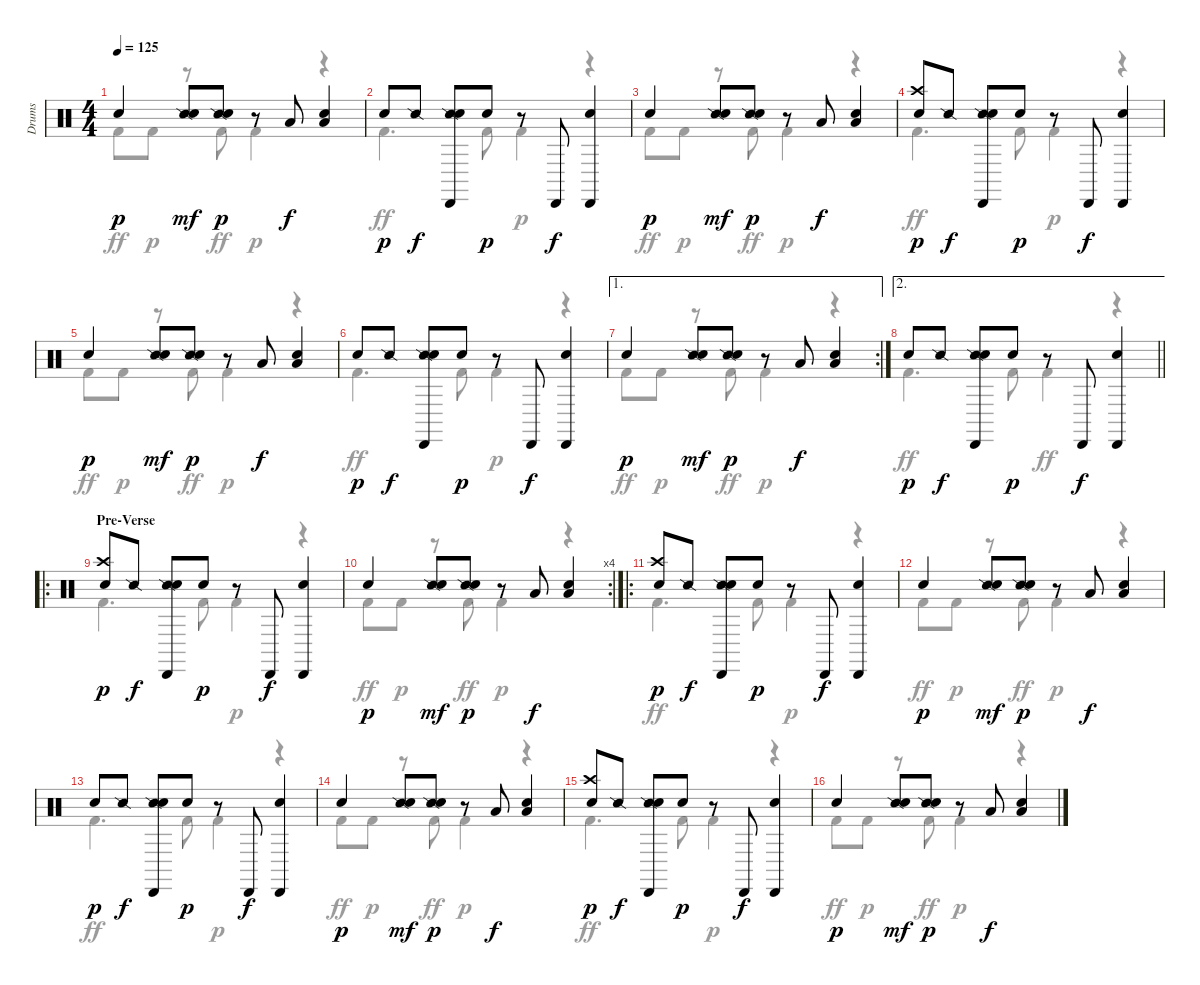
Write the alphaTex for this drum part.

\track ("Drums" "Drums") {instrument percussion}
\staff {score}
\articulation defaults
\voice
\ts (4 4)
\tempo 125
\clef neutral
\ks c "Hand Clap (hit)".4{dy p}
("Snare (side stick) 2" "Snare (hit) 2").8{dy mf} ("Snare (side stick) 2" "Hand Clap (hit)").8{dy p} r.8 "Low Tom (hit)".8{dy f} ("Low Tom (hit)" "Snare (hit) 2").4 |
"Hand Clap (hit)".8{dy p} "Snare (side stick) 2".8{dy f} ("Snare (side stick) 2" "Cabasa (hit)" "Snare (hit) 2").8 "Hand Clap (hit)".8{dy p} r.8 "Cabasa (hit)".8{dy f} ("Cabasa (hit)" "Snare (hit) 2").4 |
"Hand Clap (hit)".4{dy p} ("Snare (side stick) 2" "Snare (hit) 2").8{dy mf} ("Snare (side stick) 2" "Hand Clap (hit)").8{dy p} r.8 "Low Tom (hit)".8{dy f} ("Low Tom (hit)" "Snare (hit) 2").4 |
("Crash high (hit)" "Hand Clap (hit)").8{dy p} "Snare (side stick) 2".8{dy f} ("Snare (side stick) 2" "Cabasa (hit)" "Snare (hit) 2").8 "Hand Clap (hit)".8{dy p} r.8 "Cabasa (hit)".8{dy f} ("Cabasa (hit)" "Snare (hit) 2").4 |
"Hand Clap (hit)".4{dy p} ("Snare (side stick) 2" "Snare (hit) 2").8{dy mf} ("Snare (side stick) 2" "Hand Clap (hit)").8{dy p} r.8 "Low Tom (hit)".8{dy f} ("Low Tom (hit)" "Snare (hit) 2").4 |
"Hand Clap (hit)".8{dy p} "Snare (side stick) 2".8{dy f} ("Snare (side stick) 2" "Cabasa (hit)" "Snare (hit) 2").8 "Hand Clap (hit)".8{dy p} r.8 "Cabasa (hit)".8{dy f} ("Cabasa (hit)" "Snare (hit) 2").4 |
\ae 1
\rc 2 "Hand Clap (hit)".4{dy p}
("Snare (side stick) 2" "Snare (hit) 2").8{dy mf} ("Snare (side stick) 2" "Hand Clap (hit)").8{dy p} r.8 "Low Tom (hit)".8{dy f} ("Low Tom (hit)" "Snare (hit) 2").4 |
\ae 2
\barLineRight lightlight "Hand Clap (hit)".8{dy p} "Snare (side stick) 2".8{dy f}
("Snare (side stick) 2" "Cabasa (hit)" "Snare (hit) 2").8 "Hand Clap (hit)".8{dy p} r.8 "Cabasa (hit)".8{dy f} ("Cabasa (hit)" "Snare (hit) 2").4 |
\ro
\section ("" "Pre-Verse")
("Crash high (hit)" "Hand Clap (hit)").8{dy p} "Snare (side stick) 2".8{dy f} ("Snare (side stick) 2" "Cabasa (hit)" "Snare (hit) 2").8 "Hand Clap (hit)".8{dy p} r.8 "Cabasa (hit)".8{dy f} ("Cabasa (hit)" "Snare (hit) 2").4 |
\rc 4 "Hand Clap (hit)".4{dy p}
("Snare (side stick) 2" "Snare (hit) 2").8{dy mf} ("Snare (side stick) 2" "Hand Clap (hit)").8{dy p} r.8 "Low Tom (hit)".8{dy f} ("Low Tom (hit)" "Snare (hit) 2").4 |
\ro
("Crash high (hit)" "Hand Clap (hit)").8{dy p} "Snare (side stick) 2".8{dy f} ("Snare (side stick) 2" "Cabasa (hit)" "Snare (hit) 2").8 "Hand Clap (hit)".8{dy p} r.8 "Cabasa (hit)".8{dy f} ("Cabasa (hit)" "Snare (hit) 2").4 |
"Hand Clap (hit)".4{dy p} ("Snare (side stick) 2" "Snare (hit) 2").8{dy mf} ("Snare (side stick) 2" "Hand Clap (hit)").8{dy p} r.8 "Low Tom (hit)".8{dy f} ("Low Tom (hit)" "Snare (hit) 2").4 |
"Hand Clap (hit)".8{dy p} "Snare (side stick) 2".8{dy f} ("Snare (side stick) 2" "Cabasa (hit)" "Snare (hit) 2").8 "Hand Clap (hit)".8{dy p} r.8 "Cabasa (hit)".8{dy f} ("Cabasa (hit)" "Snare (hit) 2").4 |
"Hand Clap (hit)".4{dy p} ("Snare (side stick) 2" "Snare (hit) 2").8{dy mf} ("Snare (side stick) 2" "Hand Clap (hit)").8{dy p} r.8 "Low Tom (hit)".8{dy f} ("Low Tom (hit)" "Snare (hit) 2").4 |
("Crash high (hit)" "Hand Clap (hit)").8{dy p} "Snare (side stick) 2".8{dy f} ("Snare (side stick) 2" "Cabasa (hit)" "Snare (hit) 2").8 "Hand Clap (hit)".8{dy p} r.8 "Cabasa (hit)".8{dy f} ("Cabasa (hit)" "Snare (hit) 2").4 |
"Hand Clap (hit)".4{dy p} ("Snare (side stick) 2" "Snare (hit) 2").8{dy mf} ("Snare (side stick) 2" "Hand Clap (hit)").8{dy p} r.8 "Low Tom (hit)".8{dy f} ("Low Tom (hit)" "Snare (hit) 2").4
\voice
\clef neutral
\ottava regular
\simile none
\ks c "Kick (hit) 2".8{dy ff} "Kick (hit) 2".8{dy p}
r.8 "Kick (hit) 2".8{dy ff} "Kick (hit) 2".4{dy p} r.4 |
"Kick (hit) 2".4{d dy ff} "Kick (hit) 2".8 "Kick (hit) 2".4{dy p} r.4 |
"Kick (hit) 2".8{dy ff} "Kick (hit) 2".8{dy p} r.8 "Kick (hit) 2".8{dy ff} "Kick (hit) 2".4{dy p} r.4 |
"Kick (hit) 2".4{d dy ff} "Kick (hit) 2".8 "Kick (hit) 2".4{dy p} r.4 |
"Kick (hit) 2".8{dy ff} "Kick (hit) 2".8{dy p} r.8 "Kick (hit) 2".8{dy ff} "Kick (hit) 2".4{dy p} r.4 |
"Kick (hit) 2".4{d dy ff} "Kick (hit) 2".8 "Kick (hit) 2".4{dy p} r.4 |
"Kick (hit) 2".8{dy ff} "Kick (hit) 2".8{dy p} r.8 "Kick (hit) 2".8{dy ff} "Kick (hit) 2".4{dy p} r.4 |
\barLineRight lightlight "Kick (hit) 2".4{d dy ff} "Kick (hit) 2".8{dy p} "Kick (hit) 2".4{dy ff}
r.4 |
"Kick (hit) 2".4{d} "Kick (hit) 2".8 "Kick (hit) 2".4{dy p} r.4 |
"Kick (hit) 2".8{dy ff} "Kick (hit) 2".8{dy p} r.8 "Kick (hit) 2".8{dy ff} "Kick (hit) 2".4{dy p} r.4 |
"Kick (hit) 2".4{d dy ff} "Kick (hit) 2".8 "Kick (hit) 2".4{dy p} r.4 |
"Kick (hit) 2".8{dy ff} "Kick (hit) 2".8{dy p} r.8 "Kick (hit) 2".8{dy ff} "Kick (hit) 2".4{dy p} r.4 |
"Kick (hit) 2".4{d dy ff} "Kick (hit) 2".8 "Kick (hit) 2".4{dy p} r.4 |
"Kick (hit) 2".8{dy ff} "Kick (hit) 2".8{dy p} r.8 "Kick (hit) 2".8{dy ff} "Kick (hit) 2".4{dy p} r.4 |
"Kick (hit) 2".4{d dy ff} "Kick (hit) 2".8 "Kick (hit) 2".4{dy p} r.4 |
"Kick (hit) 2".8{dy ff} "Kick (hit) 2".8{dy p} r.8 "Kick (hit) 2".8{dy ff} "Kick (hit) 2".4{dy p} r.4
